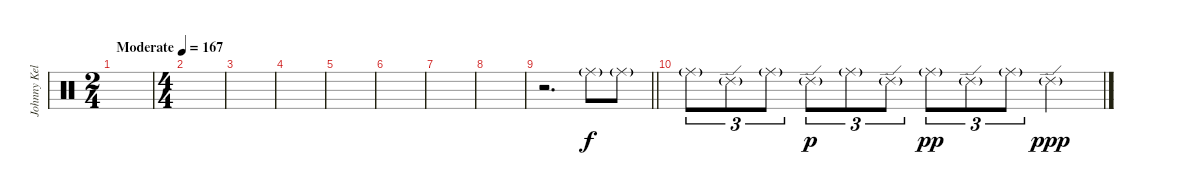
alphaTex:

\track ("Johnny Kelly" "Johnny Kel") {instrument percussion}
\staff {score}
\articulation defaults
\ts (2 4)
\tempo (167 "Moderate")
\clef neutral
\ks c
|
\ts (4 4)
|
|
|
|
|
|
|
\barLineRight lightlight
r.2{d} "Ride (middle)"{g}.8 "Ride (middle)"{g}.8 |
\section ("" "")
"Ride (middle)"{g}.8{tu (3 2)} "Ride (edge) 2"{g}.8{tu (3 2)} "Ride (middle)"{g}.8{tu (3 2)} "Ride (edge) 2"{g}.8{tu (3 2) dy p} "Ride (middle)"{g}.8{tu (3 2)} "Ride (edge) 2"{g}.8{tu (3 2)} "Ride (middle)"{g}.8{tu (3 2) dy pp} "Ride (edge) 2"{g}.8{tu (3 2)} "Ride (middle)"{g}.8{tu (3 2)} "Ride (edge) 2"{g}.4{dy ppp}
